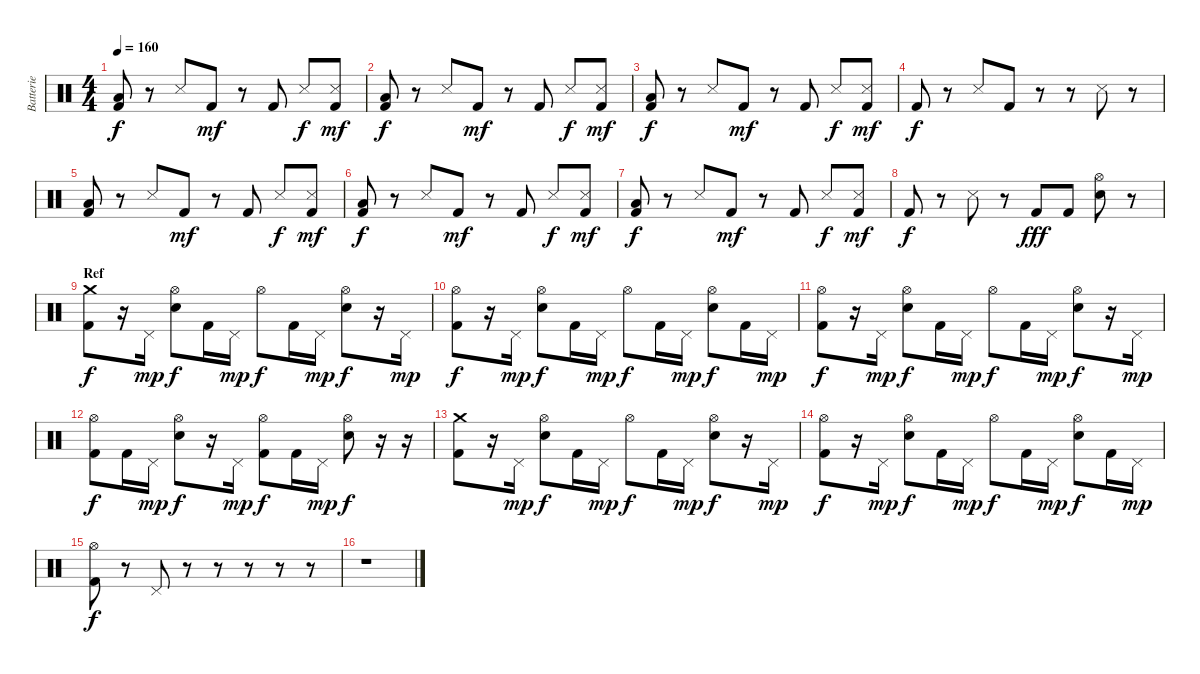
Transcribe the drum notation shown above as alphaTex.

\track ("Batterie" "Batterie") {instrument percussion}
\staff {score}
\articulation defaults
\ts (4 4)
\tempo 160
\clef neutral
\ks c
("Low Floor Tom (hit)" "Kick (hit) 2").8{dy f} r.8 "Snare (side stick) 3".8 "Kick (hit) 2".8{dy mf} r.8 "Kick (hit) 2".8 "Snare (side stick) 3".8{dy f} ("Metronome (hit)" "Kick (hit) 2").8{dy mf} |
("Low Floor Tom (hit)" "Kick (hit) 2").8{dy f} r.8 "Snare (side stick) 3".8 "Kick (hit) 2".8{dy mf} r.8 "Kick (hit) 2".8 "Snare (side stick) 3".8{dy f} ("Metronome (hit)" "Kick (hit) 2").8{dy mf} |
("Low Floor Tom (hit)" "Kick (hit) 2").8{dy f} r.8 "Snare (side stick) 3".8 "Kick (hit) 2".8{dy mf} r.8 "Kick (hit) 2".8 "Snare (side stick) 3".8{dy f} ("Metronome (hit)" "Kick (hit) 2").8{dy mf} |
"Kick (hit) 2".8{dy f} r.8 "Snare (side stick) 3".8 "Kick (hit) 2".8 r.8 r.8 "Snare (side stick) 3".8 r.8 |
("Low Floor Tom (hit)" "Kick (hit) 2").8 r.8 "Snare (side stick) 3".8 "Kick (hit) 2".8{dy mf} r.8 "Kick (hit) 2".8 "Snare (side stick) 3".8{dy f} ("Metronome (hit)" "Kick (hit) 2").8{dy mf} |
("Low Floor Tom (hit)" "Kick (hit) 2").8{dy f} r.8 "Snare (side stick) 3".8 "Kick (hit) 2".8{dy mf} r.8 "Kick (hit) 2".8 "Snare (side stick) 3".8{dy f} ("Metronome (hit)" "Kick (hit) 2").8{dy mf} |
("Low Floor Tom (hit)" "Kick (hit) 2").8{dy f} r.8 "Snare (side stick) 3".8 "Kick (hit) 2".8{dy mf} r.8 "Kick (hit) 2".8 "Snare (side stick) 3".8{dy f} ("Metronome (hit)" "Kick (hit) 2").8{dy mf} |
"Kick (hit) 2".8{dy f} r.8 "Snare (side stick) 3".8 r.8 "Kick (hit) 2".8{dy fff} "Kick (hit) 2".8 ("Hi-Hat (open)" "Snare (hit) 2").8 r.8 |
\section ("" "Ref")
("Crash medium (hit)" "Kick (hit) 2").8{dy f} r.16 "Pedal Hi-Hat (hit)".16{dy mp} ("Hi-Hat (open)" "Snare (hit) 2").8{dy f} "Kick (hit) 2".16 "Pedal Hi-Hat (hit)".16{dy mp} "Hi-Hat (open)".8{dy f} "Kick (hit) 2".16 "Pedal Hi-Hat (hit)".16{dy mp} ("Hi-Hat (open)" "Snare (hit) 2").8{dy f} r.16 "Pedal Hi-Hat (hit)".16{dy mp} |
("Hi-Hat (open)" "Kick (hit) 2").8{dy f} r.16 "Pedal Hi-Hat (hit)".16{dy mp} ("Hi-Hat (open)" "Snare (hit) 2").8{dy f} "Kick (hit) 2".16 "Pedal Hi-Hat (hit)".16{dy mp} "Hi-Hat (open)".8{dy f} "Kick (hit) 2".16 "Pedal Hi-Hat (hit)".16{dy mp} ("Hi-Hat (open)" "Snare (hit) 2").8{dy f} "Kick (hit) 2".16 "Pedal Hi-Hat (hit)".16{dy mp} |
("Hi-Hat (open)" "Kick (hit) 2").8{dy f} r.16 "Pedal Hi-Hat (hit)".16{dy mp} ("Hi-Hat (open)" "Snare (hit) 2").8{dy f} "Kick (hit) 2".16 "Pedal Hi-Hat (hit)".16{dy mp} "Hi-Hat (open)".8{dy f} "Kick (hit) 2".16 "Pedal Hi-Hat (hit)".16{dy mp} ("Hi-Hat (open)" "Snare (hit) 2").8{dy f} r.16 "Pedal Hi-Hat (hit)".16{dy mp} |
("Hi-Hat (open)" "Kick (hit) 2").8{dy f} "Kick (hit) 2".16 "Pedal Hi-Hat (hit)".16{dy mp} ("Hi-Hat (open)" "Snare (hit) 2").8{dy f} r.16 "Pedal Hi-Hat (hit)".16{dy mp} ("Hi-Hat (open)" "Kick (hit) 2").8{dy f} "Kick (hit) 2".16 "Pedal Hi-Hat (hit)".16{dy mp} ("Hi-Hat (open)" "Snare (hit) 2").8{dy f} r.16 r.16 |
("Crash medium (hit)" "Kick (hit) 2").8 r.16 "Pedal Hi-Hat (hit)".16{dy mp} ("Hi-Hat (open)" "Snare (hit) 2").8{dy f} "Kick (hit) 2".16 "Pedal Hi-Hat (hit)".16{dy mp} "Hi-Hat (open)".8{dy f} "Kick (hit) 2".16 "Pedal Hi-Hat (hit)".16{dy mp} ("Hi-Hat (open)" "Snare (hit) 2").8{dy f} r.16 "Pedal Hi-Hat (hit)".16{dy mp} |
("Hi-Hat (open)" "Kick (hit) 2").8{dy f} r.16 "Pedal Hi-Hat (hit)".16{dy mp} ("Hi-Hat (open)" "Snare (hit) 2").8{dy f} "Kick (hit) 2".16 "Pedal Hi-Hat (hit)".16{dy mp} "Hi-Hat (open)".8{dy f} "Kick (hit) 2".16 "Pedal Hi-Hat (hit)".16{dy mp} ("Hi-Hat (open)" "Snare (hit) 2").8{dy f} "Kick (hit) 2".16 "Pedal Hi-Hat (hit)".16{dy mp} |
("Hi-Hat (open)" "Kick (hit) 2").8{dy f} r.8 "Pedal Hi-Hat (hit)".8 r.8 r.8 r.8 r.8 r.8 |
r.1
